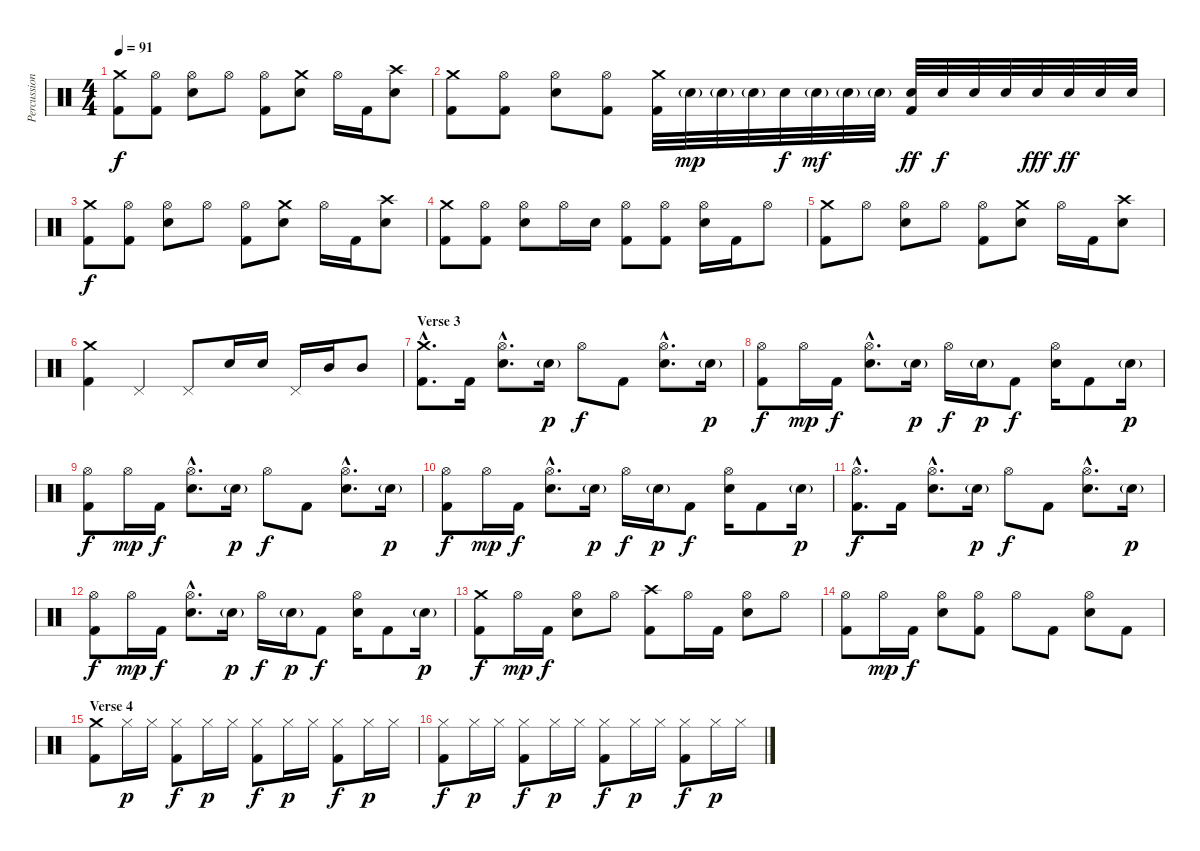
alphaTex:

\track ("Percussion" "Percussion") {instrument percussion}
\staff {score}
\articulation defaults
\ts (4 4)
\tempo 91
\clef neutral
\ks c
("Crash medium (hit)" "Kick (hit) 2").8{dy f} ("Hi-Hat (open)" "Kick (hit) 2").8 ("Hi-Hat (open)" "Electric Snare (hit)").8 "Hi-Hat (open)".8 ("Hi-Hat (open)" "Kick (hit) 2").8 ("Crash medium (hit)" "Electric Snare (hit)").8 "Hi-Hat (open)".16 "Kick (hit) 2".16 ("Crash high (hit)" "Electric Snare (hit)").8 |
("Crash medium (hit)" "Kick (hit) 2").8 ("Hi-Hat (open)" "Kick (hit) 2").8 ("Hi-Hat (open)" "Electric Snare (hit)").8 ("Hi-Hat (open)" "Kick (hit) 2").8 ("Crash medium (hit)" "Kick (hit) 2").32 "Electric Snare (hit)"{g}.32{dy mp} "Electric Snare (hit)"{g}.32 "Electric Snare (hit)"{g}.32 "Electric Snare (hit)".32{dy f} "Electric Snare (hit)"{g}.32{dy mf} "Electric Snare (hit)"{g}.32 "Electric Snare (hit)"{g}.32 ("Electric Snare (hit)" "Kick (hit) 2").32{dy ff} "Electric Snare (hit)".32{dy f} "Electric Snare (hit)".32 "Electric Snare (hit)".32 "Electric Snare (hit)".32{dy fff} "Electric Snare (hit)".32{dy ff} "Electric Snare (hit)".32 "Electric Snare (hit)".32 |
("Crash medium (hit)" "Kick (hit) 2").8{dy f} ("Hi-Hat (open)" "Kick (hit) 2").8 ("Hi-Hat (open)" "Electric Snare (hit)").8 "Hi-Hat (open)".8 ("Hi-Hat (open)" "Kick (hit) 2").8 ("Crash medium (hit)" "Electric Snare (hit)").8 "Hi-Hat (open)".16 "Kick (hit) 2".16 ("Crash high (hit)" "Electric Snare (hit)").8 |
("Crash medium (hit)" "Kick (hit) 2").8 ("Hi-Hat (open)" "Kick (hit) 2").8 ("Hi-Hat (open)" "Electric Snare (hit)").8 "Hi-Hat (open)".16 "Electric Snare (hit)".16 ("Hi-Hat (open)" "Kick (hit) 2").8 ("Hi-Hat (open)" "Kick (hit) 2").8 ("Hi-Hat (open)" "Electric Snare (hit)").16 "Kick (hit) 2".16 "Hi-Hat (open)".8 |
("Crash medium (hit)" "Kick (hit) 2").8 "Hi-Hat (open)".8 ("Hi-Hat (open)" "Electric Snare (hit)").8 "Hi-Hat (open)".8 ("Hi-Hat (open)" "Kick (hit) 2").8 ("Crash medium (hit)" "Electric Snare (hit)").8 "Hi-Hat (open)".16 "Kick (hit) 2".16 ("Crash high (hit)" "Electric Snare (hit)").8 |
("Crash medium (hit)" "Kick (hit) 2").4 "Pedal Hi-Hat (hit)".4 "Pedal Hi-Hat (hit)".8 "Electric Snare (hit)".16 "Electric Snare (hit)".16 "Pedal Hi-Hat (hit)".16 "Mid Tom (hit)".16 "Mid Tom (hit)".8 |
\section ("" "Verse 3")
("Crash medium (hit)"{hac} "Kick (hit) 2"{hac}).8{d} "Kick (hit) 2".16 ("Hi-Hat (open)"{hac} "Electric Snare (hit)"{hac}).8{d} "Electric Snare (hit)"{g}.16{dy p} "Hi-Hat (open)".8{dy f} "Kick (hit) 2".8 ("Hi-Hat (open)"{hac} "Electric Snare (hit)"{hac}).8{d} "Electric Snare (hit)"{g}.16{dy p} |
("Hi-Hat (open)" "Kick (hit) 2").8{dy f} "Hi-Hat (open)".16{dy mp} "Kick (hit) 2".16{dy f} ("Hi-Hat (open)"{hac} "Electric Snare (hit)"{hac}).8{d} "Electric Snare (hit)"{g}.16{dy p} "Hi-Hat (open)".16{dy f} "Electric Snare (hit)"{g}.16{dy p} "Kick (hit) 2".8{dy f} ("Hi-Hat (open)" "Electric Snare (hit)").16 "Kick (hit) 2".8 "Electric Snare (hit)"{g}.16{dy p} |
("Hi-Hat (open)" "Kick (hit) 2").8{dy f} "Hi-Hat (open)".16{dy mp} "Kick (hit) 2".16{dy f} ("Hi-Hat (open)"{hac} "Electric Snare (hit)"{hac}).8{d} "Electric Snare (hit)"{g}.16{dy p} "Hi-Hat (open)".8{dy f} "Kick (hit) 2".8 ("Hi-Hat (open)"{hac} "Electric Snare (hit)"{hac}).8{d} "Electric Snare (hit)"{g}.16{dy p} |
("Hi-Hat (open)" "Kick (hit) 2").8{dy f} "Hi-Hat (open)".16{dy mp} "Kick (hit) 2".16{dy f} ("Hi-Hat (open)"{hac} "Electric Snare (hit)"{hac}).8{d} "Electric Snare (hit)"{g}.16{dy p} "Hi-Hat (open)".16{dy f} "Electric Snare (hit)"{g}.16{dy p} "Kick (hit) 2".8{dy f} ("Hi-Hat (open)" "Electric Snare (hit)").16 "Kick (hit) 2".8 "Electric Snare (hit)"{g}.16{dy p} |
("Hi-Hat (open)"{hac} "Kick (hit) 2"{hac}).8{d dy f} "Kick (hit) 2".16 ("Hi-Hat (open)"{hac} "Electric Snare (hit)"{hac}).8{d} "Electric Snare (hit)"{g}.16{dy p} "Hi-Hat (open)".8{dy f} "Kick (hit) 2".8 ("Hi-Hat (open)"{hac} "Electric Snare (hit)"{hac}).8{d} "Electric Snare (hit)"{g}.16{dy p} |
("Hi-Hat (open)" "Kick (hit) 2").8{dy f} "Hi-Hat (open)".16{dy mp} "Kick (hit) 2".16{dy f} ("Hi-Hat (open)"{hac} "Electric Snare (hit)"{hac}).8{d} "Electric Snare (hit)"{g}.16{dy p} "Hi-Hat (open)".16{dy f} "Electric Snare (hit)"{g}.16{dy p} "Kick (hit) 2".8{dy f} ("Hi-Hat (open)" "Electric Snare (hit)").16 "Kick (hit) 2".8 "Electric Snare (hit)"{g}.16{dy p} |
("Crash medium (hit)" "Kick (hit) 2").8{dy f} "Hi-Hat (open)".16{dy mp} "Kick (hit) 2".16{dy f} ("Hi-Hat (open)" "Electric Snare (hit)").8 "Hi-Hat (open)".8 ("Crash high (hit)" "Kick (hit) 2").8 "Hi-Hat (open)".16 "Kick (hit) 2".16 ("Hi-Hat (open)" "Electric Snare (hit)").8 "Hi-Hat (open)".8 |
("Hi-Hat (open)" "Kick (hit) 2").8 "Hi-Hat (open)".16{dy mp} "Kick (hit) 2".16{dy f} ("Hi-Hat (open)" "Electric Snare (hit)").8 ("Hi-Hat (open)" "Kick (hit) 2").8 "Hi-Hat (open)".8 "Kick (hit) 2".8 ("Hi-Hat (open)" "Electric Snare (hit)").8 "Kick (hit) 2".8 |
\section ("" "Verse 4")
("Crash medium (hit)" "Kick (hit) 2").8 "Hi-Hat (closed)".16{dy p} "Hi-Hat (closed)".16 ("Hi-Hat (closed)" "Kick (hit) 2").8{dy f} "Hi-Hat (closed)".16{dy p} "Hi-Hat (closed)".16 ("Hi-Hat (closed)" "Kick (hit) 2").8{dy f} "Hi-Hat (closed)".16{dy p} "Hi-Hat (closed)".16 ("Hi-Hat (closed)" "Kick (hit) 2").8{dy f} "Hi-Hat (closed)".16{dy p} "Hi-Hat (closed)".16 |
("Hi-Hat (closed)" "Kick (hit) 2").8{dy f} "Hi-Hat (closed)".16{dy p} "Hi-Hat (closed)".16 ("Hi-Hat (closed)" "Kick (hit) 2").8{dy f} "Hi-Hat (closed)".16{dy p} "Hi-Hat (closed)".16 ("Hi-Hat (closed)" "Kick (hit) 2").8{dy f} "Hi-Hat (closed)".16{dy p} "Hi-Hat (closed)".16 ("Hi-Hat (closed)" "Kick (hit) 2").8{dy f} "Hi-Hat (closed)".16{dy p} "Hi-Hat (closed)".16
